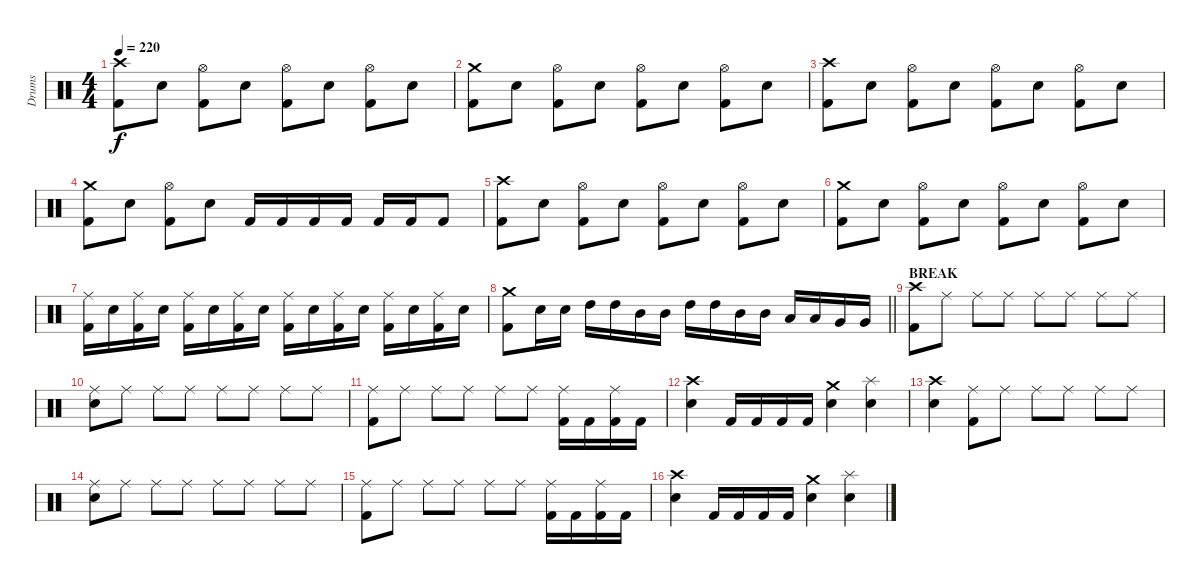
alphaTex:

\track ("Drums" "Drums") {instrument percussion}
\staff {score}
\articulation defaults
\ts (4 4)
\tempo 220
\clef neutral
\ks c
("Crash high (hit)" "Kick (hit) 2").8{dy f} "Snare (hit) 2".8 ("Hi-Hat (open)" "Kick (hit) 2").8 "Snare (hit) 2".8 ("Hi-Hat (open)" "Kick (hit) 2").8 "Snare (hit) 2".8 ("Hi-Hat (open)" "Kick (hit) 2").8 "Snare (hit) 2".8 |
("Crash medium (hit)" "Kick (hit) 2").8 "Snare (hit) 2".8 ("Hi-Hat (open)" "Kick (hit) 2").8 "Snare (hit) 2".8 ("Hi-Hat (open)" "Kick (hit) 2").8 "Snare (hit) 2".8 ("Hi-Hat (open)" "Kick (hit) 2").8 "Snare (hit) 2".8 |
("Crash high (hit)" "Kick (hit) 2").8 "Snare (hit) 2".8 ("Hi-Hat (open)" "Kick (hit) 2").8 "Snare (hit) 2".8 ("Hi-Hat (open)" "Kick (hit) 2").8 "Snare (hit) 2".8 ("Hi-Hat (open)" "Kick (hit) 2").8 "Snare (hit) 2".8 |
("Crash medium (hit)" "Kick (hit) 2").8 "Snare (hit) 2".8 ("Hi-Hat (open)" "Kick (hit) 2").8 "Snare (hit) 2".8 "Kick (hit) 2".16 "Kick (hit) 2".16 "Kick (hit) 2".16 "Kick (hit) 2".16 "Kick (hit) 2".16 "Kick (hit) 2".16 "Kick (hit) 2".8 |
("Crash high (hit)" "Kick (hit) 2").8 "Snare (hit) 2".8 ("Hi-Hat (open)" "Kick (hit) 2").8 "Snare (hit) 2".8 ("Hi-Hat (open)" "Kick (hit) 2").8 "Snare (hit) 2".8 ("Hi-Hat (open)" "Kick (hit) 2").8 "Snare (hit) 2".8 |
("Crash medium (hit)" "Kick (hit) 2").8 "Snare (hit) 2".8 ("Hi-Hat (open)" "Kick (hit) 2").8 "Snare (hit) 2".8 ("Hi-Hat (open)" "Kick (hit) 2").8 "Snare (hit) 2".8 ("Hi-Hat (open)" "Kick (hit) 2").8 "Snare (hit) 2".8 |
("Ride (middle)" "Kick (hit) 2").16 "Snare (hit) 2".16 ("Ride (middle)" "Kick (hit) 2").16 "Snare (hit) 2".16 ("Ride (middle)" "Kick (hit) 2").16 "Snare (hit) 2".16 ("Ride (middle)" "Kick (hit) 2").16 "Snare (hit) 2".16 ("Ride (middle)" "Kick (hit) 2").16 "Snare (hit) 2".16 ("Ride (middle)" "Kick (hit) 2").16 "Snare (hit) 2".16 ("Ride (middle)" "Kick (hit) 2").16 "Snare (hit) 2".16 ("Ride (middle)" "Kick (hit) 2").16 "Snare (hit) 2".16 |
\barLineRight lightlight
("Crash medium (hit)" "Kick (hit) 2").8 "Snare (hit) 2".16 "Snare (hit) 2".16 "High Tom (hit)".16 "High Tom (hit)".16 "Mid Tom (hit)".16 "Mid Tom (hit)".16 "High Tom (hit)".16 "High Tom (hit)".16 "Mid Tom (hit)".16 "Mid Tom (hit)".16 "Low Tom (hit)".16 "Low Tom (hit)".16 "Very Low Tom (hit)".16 "Very Low Tom (hit)".16 |
\section ("" "BREAK")
("Crash high (hit)" "Kick (hit) 2").8 "Ride (middle)".8 "Ride (middle)".8 "Ride (middle)".8 "Ride (middle)".8 "Ride (middle)".8 "Ride (middle)".8 "Ride (middle)".8 |
("Ride (middle)" "Snare (hit) 2").8 "Ride (middle)".8 "Ride (middle)".8 "Ride (middle)".8 "Ride (middle)".8 "Ride (middle)".8 "Ride (middle)".8 "Ride (middle)".8 |
("Ride (middle)" "Kick (hit) 2").8 "Ride (middle)".8 "Ride (middle)".8 "Ride (middle)".8 "Ride (middle)".8 "Ride (middle)".8 ("Ride (middle)" "Kick (hit) 2").16 "Kick (hit) 2".16 ("Ride (middle)" "Kick (hit) 2").16 "Kick (hit) 2".16 |
("Crash high (hit)" "Snare (hit) 2").4 "Kick (hit) 2".16 "Kick (hit) 2".16 "Kick (hit) 2".16 "Kick (hit) 2".16 ("Crash medium (hit)" "Snare (hit) 2").4 ("Splash (hit)" "Snare (hit) 2").4 |
("Crash high (hit)" "Snare (hit) 2").4 ("Ride (middle)" "Kick (hit) 2").8 "Ride (middle)".8 "Ride (middle)".8 "Ride (middle)".8 "Ride (middle)".8 "Ride (middle)".8 |
("Ride (middle)" "Snare (hit) 2").8 "Ride (middle)".8 "Ride (middle)".8 "Ride (middle)".8 "Ride (middle)".8 "Ride (middle)".8 "Ride (middle)".8 "Ride (middle)".8 |
("Ride (middle)" "Kick (hit) 2").8 "Ride (middle)".8 "Ride (middle)".8 "Ride (middle)".8 "Ride (middle)".8 "Ride (middle)".8 ("Ride (middle)" "Kick (hit) 2").16 "Kick (hit) 2".16 ("Ride (middle)" "Kick (hit) 2").16 "Kick (hit) 2".16 |
("Crash high (hit)" "Snare (hit) 2").4 "Kick (hit) 2".16 "Kick (hit) 2".16 "Kick (hit) 2".16 "Kick (hit) 2".16 ("Crash medium (hit)" "Snare (hit) 2").4 ("Splash (hit)" "Snare (hit) 2").4
